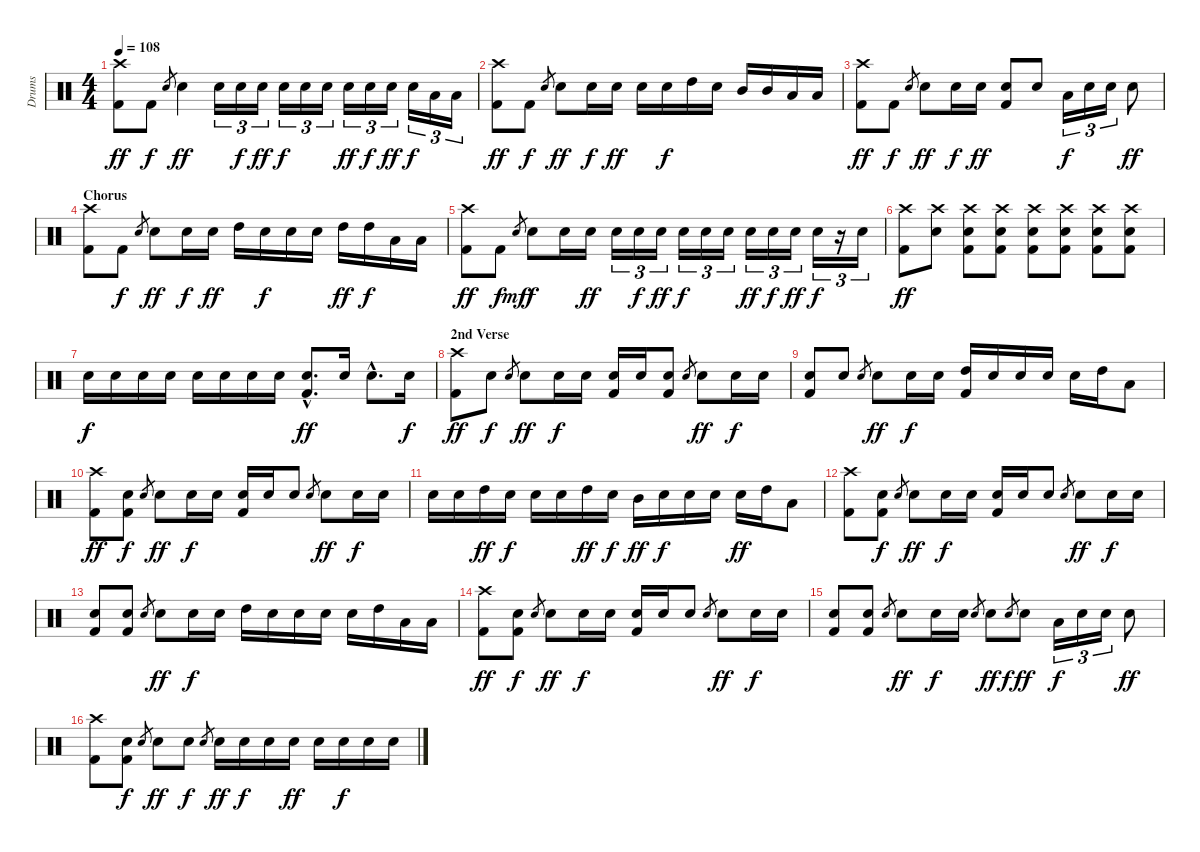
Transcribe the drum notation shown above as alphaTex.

\track ("Drums" "Drums") {instrument percussion}
\staff {score}
\articulation defaults
\ts (4 4)
\tempo 108
\clef neutral
\ks c
("Crash high (hit)" "Kick (hit) 2").8{dy ff} "Kick (hit) 2".8{dy f} "Electric Snare (hit)".8{gr} "Electric Snare (hit)".4{dy ff} "Electric Snare (hit)".16{tu (3 2)} "Electric Snare (hit)".16{tu (3 2) dy f} "Electric Snare (hit)".16{tu (3 2) dy ff} "Electric Snare (hit)".16{tu (3 2) dy f} "Electric Snare (hit)".16{tu (3 2)} "Electric Snare (hit)".16{tu (3 2)} "Electric Snare (hit)".16{tu (3 2) dy ff} "Electric Snare (hit)".16{tu (3 2) dy f} "Electric Snare (hit)".16{tu (3 2) dy ff} "Electric Snare (hit)".16{tu (3 2) dy f} "Low Tom (hit)".16{tu (3 2)} "Low Tom (hit)".16{tu (3 2)} |
("Crash high (hit)" "Kick (hit) 2").8{dy ff} "Kick (hit) 2".8{dy f} "Electric Snare (hit)".8{gr} "Electric Snare (hit)".8{dy ff} "Electric Snare (hit)".16{dy f} "Electric Snare (hit)".16{dy ff} "Electric Snare (hit)".16 "Electric Snare (hit)".16{dy f} "High Tom (hit)".16 "Electric Snare (hit)".16 "Mid Tom (hit)".16 "Mid Tom (hit)".16 "Low Tom (hit)".16 "Low Tom (hit)".16 |
("Crash high (hit)" "Kick (hit) 2").8{dy ff} "Kick (hit) 2".8{dy f} "Electric Snare (hit)".8{gr} "Electric Snare (hit)".8{dy ff} "Electric Snare (hit)".16{dy f} "Electric Snare (hit)".16{dy ff} ("Electric Snare (hit)" "Kick (hit) 2").8 "Electric Snare (hit)".8 "Low Tom (hit)".16{tu (3 2) dy f} "Electric Snare (hit)".16{tu (3 2)} "Electric Snare (hit)".16{tu (3 2)} "Electric Snare (hit)".8{dy ff} |
\section ("" "Chorus")
("Crash high (hit)" "Kick (hit) 2").8 "Kick (hit) 2".8{dy f} "Electric Snare (hit)".8{gr} "Electric Snare (hit)".8{dy ff} "Electric Snare (hit)".16{dy f} "Electric Snare (hit)".16{dy ff} "High Tom (hit)".16 "Electric Snare (hit)".16{dy f} "Electric Snare (hit)".16 "Electric Snare (hit)".16 "High Tom (hit)".16{dy ff} "High Tom (hit)".16{dy f} "Low Tom (hit)".16 "Low Tom (hit)".16 |
("Crash high (hit)" "Kick (hit) 2").8{dy ff} "Kick (hit) 2".8{dy f} "Electric Snare (hit)".8{gr dy mf} "Electric Snare (hit)".8{dy f} "Electric Snare (hit)".16 "Electric Snare (hit)".16{dy ff} "Electric Snare (hit)".16{tu (3 2)} "Electric Snare (hit)".16{tu (3 2) dy f} "Electric Snare (hit)".16{tu (3 2) dy ff} "Electric Snare (hit)".16{tu (3 2) dy f} "Electric Snare (hit)".16{tu (3 2)} "Electric Snare (hit)".16{tu (3 2)} "Electric Snare (hit)".16{tu (3 2) dy ff} "Electric Snare (hit)".16{tu (3 2) dy f} "Electric Snare (hit)".16{tu (3 2) dy ff} "Electric Snare (hit)".16{tu (3 2) dy f} r.16{tu (3 2)} "Electric Snare (hit)".16{tu (3 2)} |
("Crash high (hit)" "Kick (hit) 2").8{dy ff} ("Crash high (hit)" "Electric Snare (hit)").8 ("Crash high (hit)" "Electric Snare (hit)" "Kick (hit) 2").8 ("Crash high (hit)" "Electric Snare (hit)" "Kick (hit) 2").8 ("Crash high (hit)" "Electric Snare (hit)" "Kick (hit) 2").8 ("Crash high (hit)" "Electric Snare (hit)" "Kick (hit) 2").8 ("Crash high (hit)" "Electric Snare (hit)" "Kick (hit) 2").8 ("Crash high (hit)" "Electric Snare (hit)" "Kick (hit) 2").8 |
"Electric Snare (hit)".16{dy f} "Electric Snare (hit)".16 "Electric Snare (hit)".16 "Electric Snare (hit)".16 "Electric Snare (hit)".16 "Electric Snare (hit)".16 "Electric Snare (hit)".16 "Electric Snare (hit)".16 ("Electric Snare (hit)"{hac} "Kick (hit) 2"{hac}).8{d dy ff} "Electric Snare (hit)".16 "Electric Snare (hit)"{hac}.8{d} "Electric Snare (hit)".16{dy f} |
\section ("" "2nd Verse")
("Crash high (hit)" "Kick (hit) 2").8{dy ff} "Electric Snare (hit)".8{dy f} "Electric Snare (hit)".8{gr} "Electric Snare (hit)".8{dy ff} "Electric Snare (hit)".16{dy f} "Electric Snare (hit)".16 ("Electric Snare (hit)" "Kick (hit) 2").16 "Electric Snare (hit)".16 ("Electric Snare (hit)" "Kick (hit) 2").8 "Electric Snare (hit)".8{gr} "Electric Snare (hit)".8{dy ff} "Electric Snare (hit)".16{dy f} "Electric Snare (hit)".16 |
("Electric Snare (hit)" "Kick (hit) 2").8 "Electric Snare (hit)".8 "Electric Snare (hit)".8{gr} "Electric Snare (hit)".8{dy ff} "Electric Snare (hit)".16{dy f} "Electric Snare (hit)".16 ("High Tom (hit)" "Kick (hit) 2").16 "Electric Snare (hit)".16 "Electric Snare (hit)".16 "Electric Snare (hit)".16 "Electric Snare (hit)".16 "High Tom (hit)".16 "Low Tom (hit)".8 |
("Crash high (hit)" "Kick (hit) 2").8{dy ff} ("Electric Snare (hit)" "Kick (hit) 2").8{dy f} "Electric Snare (hit)".8{gr} "Electric Snare (hit)".8{dy ff} "Electric Snare (hit)".16{dy f} "Electric Snare (hit)".16 ("Electric Snare (hit)" "Kick (hit) 2").16 "Electric Snare (hit)".16 "Electric Snare (hit)".8 "Electric Snare (hit)".8{gr} "Electric Snare (hit)".8{dy ff} "Electric Snare (hit)".16{dy f} "Electric Snare (hit)".16 |
"Electric Snare (hit)".16 "Electric Snare (hit)".16 "High Tom (hit)".16{dy ff} "Electric Snare (hit)".16{dy f} "Electric Snare (hit)".16 "Electric Snare (hit)".16 "High Tom (hit)".16{dy ff} "Electric Snare (hit)".16{dy f} "Mid Tom (hit)".16{dy ff} "Electric Snare (hit)".16{dy f} "Electric Snare (hit)".16 "Electric Snare (hit)".16 "Electric Snare (hit)".16{dy ff} "High Tom (hit)".16 "Low Tom (hit)".8 |
("Crash high (hit)" "Kick (hit) 2").8 ("Electric Snare (hit)" "Kick (hit) 2").8{dy f} "Electric Snare (hit)".8{gr} "Electric Snare (hit)".8{dy ff} "Electric Snare (hit)".16{dy f} "Electric Snare (hit)".16 ("Electric Snare (hit)" "Kick (hit) 2").16 "Electric Snare (hit)".16 "Electric Snare (hit)".8 "Electric Snare (hit)".8{gr} "Electric Snare (hit)".8{dy ff} "Electric Snare (hit)".16{dy f} "Electric Snare (hit)".16 |
("Electric Snare (hit)" "Kick (hit) 2").8 ("Electric Snare (hit)" "Kick (hit) 2").8 "Electric Snare (hit)".8{gr} "Electric Snare (hit)".8{dy ff} "Electric Snare (hit)".16{dy f} "Electric Snare (hit)".16 "High Tom (hit)".16 "Electric Snare (hit)".16 "Electric Snare (hit)".16 "Electric Snare (hit)".16 "Electric Snare (hit)".16 "High Tom (hit)".16 "Low Tom (hit)".16 "Low Tom (hit)".16 |
("Crash high (hit)" "Kick (hit) 2").8{dy ff} ("Electric Snare (hit)" "Kick (hit) 2").8{dy f} "Electric Snare (hit)".8{gr} "Electric Snare (hit)".8{dy ff} "Electric Snare (hit)".16{dy f} "Electric Snare (hit)".16 ("Electric Snare (hit)" "Kick (hit) 2").16 "Electric Snare (hit)".16 "Electric Snare (hit)".8 "Electric Snare (hit)".8{gr} "Electric Snare (hit)".8{dy ff} "Electric Snare (hit)".16{dy f} "Electric Snare (hit)".16 |
("Electric Snare (hit)" "Kick (hit) 2").8 ("Electric Snare (hit)" "Kick (hit) 2").8 "Electric Snare (hit)".8{gr} "Electric Snare (hit)".8{dy ff} "Electric Snare (hit)".16{dy f} "Electric Snare (hit)".16 "Electric Snare (hit)".8{gr} "Electric Snare (hit)".8{dy ff} "Electric Snare (hit)".8{gr dy f} "Electric Snare (hit)".8{dy ff} "Low Tom (hit)".16{tu (3 2) dy f} "Electric Snare (hit)".16{tu (3 2)} "Electric Snare (hit)".16{tu (3 2)} "Electric Snare (hit)".8{dy ff} |
("Crash high (hit)" "Kick (hit) 2").8 ("Electric Snare (hit)" "Kick (hit) 2").8{dy f} "Electric Snare (hit)".8{gr} "Electric Snare (hit)".8{dy ff} "Electric Snare (hit)".8{dy f} "Electric Snare (hit)".8{gr} "Electric Snare (hit)".16{dy ff} "Electric Snare (hit)".16{dy f} "Electric Snare (hit)".16 "Electric Snare (hit)".16{dy ff} "Electric Snare (hit)".16 "Electric Snare (hit)".16{dy f} "Electric Snare (hit)".16 "Electric Snare (hit)".16
